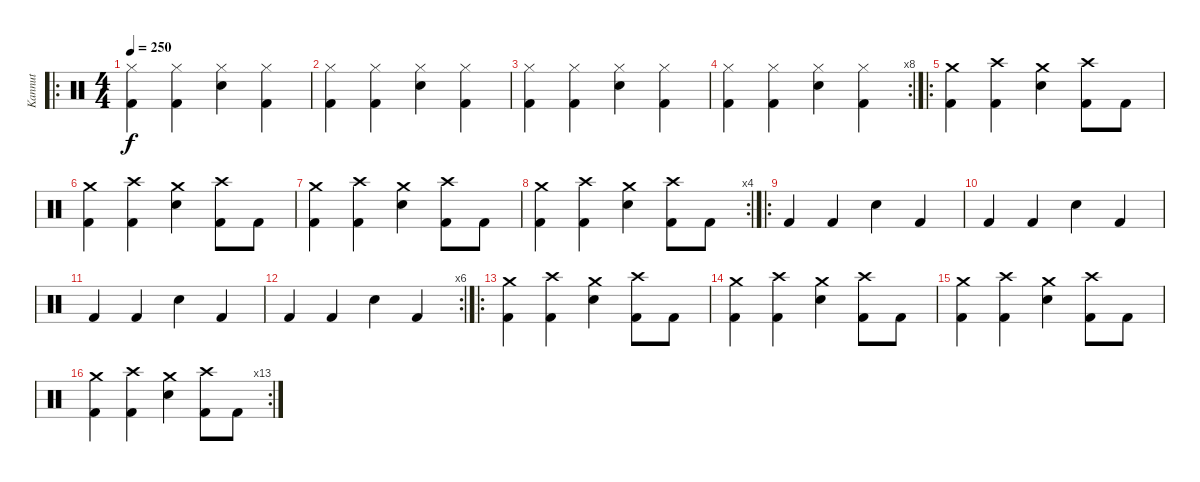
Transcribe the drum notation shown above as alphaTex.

\track ("Kannut" "Kannut") {instrument percussion}
\staff {score}
\articulation defaults
\ro
\ts (4 4)
\tempo 250
\clef neutral
\ks c
("Hi-Hat (closed)" "Kick (hit) 2").4{dy f} ("Hi-Hat (closed)" "Kick (hit) 2").4 ("Hi-Hat (closed)" "Snare (hit) 2").4 ("Hi-Hat (closed)" "Kick (hit) 2").4 |
("Hi-Hat (closed)" "Kick (hit) 2").4 ("Hi-Hat (closed)" "Kick (hit) 2").4 ("Hi-Hat (closed)" "Snare (hit) 2").4 ("Hi-Hat (closed)" "Kick (hit) 2").4 |
("Hi-Hat (closed)" "Kick (hit) 2").4 ("Hi-Hat (closed)" "Kick (hit) 2").4 ("Hi-Hat (closed)" "Snare (hit) 2").4 ("Hi-Hat (closed)" "Kick (hit) 2").4 |
\rc 8
("Hi-Hat (closed)" "Kick (hit) 2").4 ("Hi-Hat (closed)" "Kick (hit) 2").4 ("Hi-Hat (closed)" "Snare (hit) 2").4 ("Hi-Hat (closed)" "Kick (hit) 2").4 |
\ro
("Crash medium (hit)" "Kick (hit) 2").4 ("Crash high (hit)" "Kick (hit) 2").4 ("Crash medium (hit)" "Snare (hit) 2").4 ("Crash high (hit)" "Kick (hit) 2").8 "Kick (hit) 2".8 |
("Crash medium (hit)" "Kick (hit) 2").4 ("Crash high (hit)" "Kick (hit) 2").4 ("Crash medium (hit)" "Snare (hit) 2").4 ("Crash high (hit)" "Kick (hit) 2").8 "Kick (hit) 2".8 |
("Crash medium (hit)" "Kick (hit) 2").4 ("Crash high (hit)" "Kick (hit) 2").4 ("Crash medium (hit)" "Snare (hit) 2").4 ("Crash high (hit)" "Kick (hit) 2").8 "Kick (hit) 2".8 |
\rc 4
("Crash medium (hit)" "Kick (hit) 2").4 ("Crash high (hit)" "Kick (hit) 2").4 ("Crash medium (hit)" "Snare (hit) 2").4 ("Crash high (hit)" "Kick (hit) 2").8 "Kick (hit) 2".8 |
\ro "Kick (hit) 2".4 "Kick (hit) 2".4 "Snare (hit) 2".4 "Kick (hit) 2".4
|
"Kick (hit) 2".4 "Kick (hit) 2".4 "Snare (hit) 2".4 "Kick (hit) 2".4 |
"Kick (hit) 2".4 "Kick (hit) 2".4 "Snare (hit) 2".4 "Kick (hit) 2".4 |
\rc 6 "Kick (hit) 2".4 "Kick (hit) 2".4 "Snare (hit) 2".4 "Kick (hit) 2".4
|
\ro
("Crash medium (hit)" "Kick (hit) 2").4 ("Crash high (hit)" "Kick (hit) 2").4 ("Crash medium (hit)" "Snare (hit) 2").4 ("Crash high (hit)" "Kick (hit) 2").8 "Kick (hit) 2".8 |
("Crash medium (hit)" "Kick (hit) 2").4 ("Crash high (hit)" "Kick (hit) 2").4 ("Crash medium (hit)" "Snare (hit) 2").4 ("Crash high (hit)" "Kick (hit) 2").8 "Kick (hit) 2".8 |
("Crash medium (hit)" "Kick (hit) 2").4 ("Crash high (hit)" "Kick (hit) 2").4 ("Crash medium (hit)" "Snare (hit) 2").4 ("Crash high (hit)" "Kick (hit) 2").8 "Kick (hit) 2".8 |
\rc 13
("Crash medium (hit)" "Kick (hit) 2").4 ("Crash high (hit)" "Kick (hit) 2").4 ("Crash medium (hit)" "Snare (hit) 2").4 ("Crash high (hit)" "Kick (hit) 2").8 "Kick (hit) 2".8
